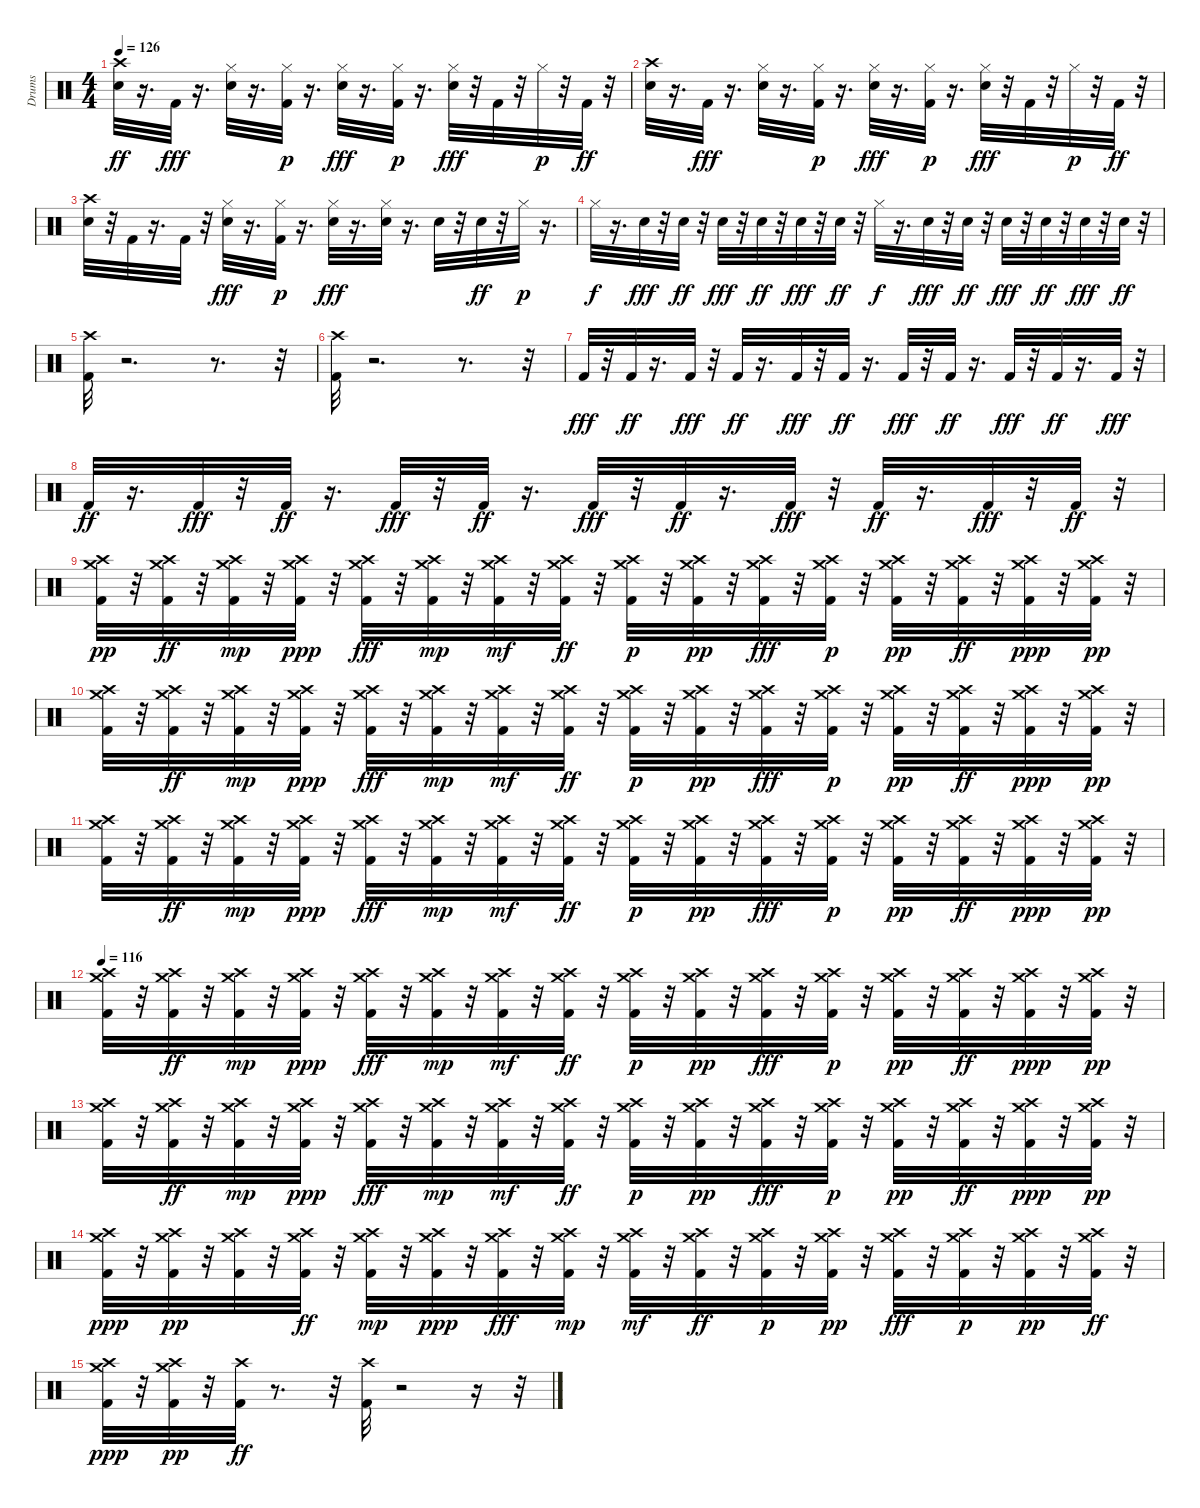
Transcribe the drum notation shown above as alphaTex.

\track ("Drums                               " "Drums     ") {instrument percussion}
\staff {score}
\articulation defaults
\ts (4 4)
\tempo 126
\clef neutral
\ks c
("Snare (hit) 2" "Crash high (hit)").32{dy ff} r.16{d} "Kick (hit) 2".32{dy fff} r.16{d} ("Snare (hit) 2" "Hi-Hat (closed)").32 r.16{d} ("Kick (hit) 2" "Hi-Hat (closed)").32{dy p} r.16{d} ("Snare (hit) 2" "Hi-Hat (closed)").32{dy fff} r.16{d} ("Kick (hit) 2" "Hi-Hat (closed)").32{dy p} r.16{d} ("Snare (hit) 2" "Hi-Hat (closed)").32{dy fff} r.32 "Kick (hit) 2".32 r.32 "Hi-Hat (closed)".32{dy p} r.32 "Kick (hit) 2".32{dy ff} r.32 |
("Snare (hit) 2" "Crash high (hit)").32 r.16{d} "Kick (hit) 2".32{dy fff} r.16{d} ("Snare (hit) 2" "Hi-Hat (closed)").32 r.16{d} ("Kick (hit) 2" "Hi-Hat (closed)").32{dy p} r.16{d} ("Snare (hit) 2" "Hi-Hat (closed)").32{dy fff} r.16{d} ("Kick (hit) 2" "Hi-Hat (closed)").32{dy p} r.16{d} ("Snare (hit) 2" "Hi-Hat (closed)").32{dy fff} r.32 "Kick (hit) 2".32 r.32 "Hi-Hat (closed)".32{dy p} r.32 "Kick (hit) 2".32{dy ff} r.32 |
("Snare (hit) 2" "Crash high (hit)").32 r.32 "Kick (hit) 2".32 r.16{d} "Kick (hit) 2".32 r.32 ("Snare (hit) 2" "Hi-Hat (closed)").32{dy fff} r.16{d} ("Kick (hit) 2" "Hi-Hat (closed)").32{dy p} r.16{d} ("Snare (hit) 2" "Hi-Hat (closed)").32{dy fff} r.16{d} ("Hi-Hat (closed)" "Snare (hit) 2").32 r.16{d} "Snare (hit) 2".32 r.32 "Snare (hit) 2".32{dy ff} r.32 "Hi-Hat (closed)".32{dy p} r.16{d} |
"Hi-Hat (closed)".32{dy f} r.16{d} "Snare (hit) 2".32{dy fff} r.32 "Snare (hit) 2".32{dy ff} r.32 "Snare (hit) 2".32{dy fff} r.32 "Snare (hit) 2".32{dy ff} r.32 "Snare (hit) 2".32{dy fff} r.32 "Snare (hit) 2".32{dy ff} r.32 "Hi-Hat (closed)".32{dy f} r.16{d} "Snare (hit) 2".32{dy fff} r.32 "Snare (hit) 2".32{dy ff} r.32 "Snare (hit) 2".32{dy fff} r.32 "Snare (hit) 2".32{dy ff} r.32 "Snare (hit) 2".32{dy fff} r.32 "Snare (hit) 2".32{dy ff} r.32 |
("Kick (hit) 2" "Crash high (hit)").32 r.2{d} r.8{d} r.32 |
("Kick (hit) 2" "Crash high (hit)").32 r.2{d} r.8{d} r.32 |
"Kick (hit) 2".32{dy fff} r.32 "Kick (hit) 2".32{dy ff} r.16{d} "Kick (hit) 2".32{dy fff} r.32 "Kick (hit) 2".32{dy ff} r.16{d} "Kick (hit) 2".32{dy fff} r.32 "Kick (hit) 2".32{dy ff} r.16{d} "Kick (hit) 2".32{dy fff} r.32 "Kick (hit) 2".32{dy ff} r.16{d} "Kick (hit) 2".32{dy fff} r.32 "Kick (hit) 2".32{dy ff} r.16{d} "Kick (hit) 2".32{dy fff} r.32 |
"Kick (hit) 2".32{dy ff} r.16{d} "Kick (hit) 2".32{dy fff} r.32 "Kick (hit) 2".32{dy ff} r.16{d} "Kick (hit) 2".32{dy fff} r.32 "Kick (hit) 2".32{dy ff} r.16{d} "Kick (hit) 2".32{dy fff} r.32 "Kick (hit) 2".32{dy ff} r.16{d} "Kick (hit) 2".32{dy fff} r.32 "Kick (hit) 2".32{dy ff} r.16{d} "Kick (hit) 2".32{dy fff} r.32 "Kick (hit) 2".32{dy ff} r.32 |
("Kick (hit) 2" "Crash high (hit)" "Crash medium (hit)").32{dy pp} r.32 ("Crash high (hit)" "Crash medium (hit)" "Kick (hit) 2").32{dy ff} r.32 ("Kick (hit) 2" "Crash high (hit)" "Crash medium (hit)").32{dy mp} r.32 ("Kick (hit) 2" "Crash high (hit)" "Crash medium (hit)").32{dy ppp} r.32 ("Crash high (hit)" "Crash medium (hit)" "Kick (hit) 2").32{dy fff} r.32 ("Kick (hit) 2" "Crash high (hit)" "Crash medium (hit)").32{dy mp} r.32 ("Kick (hit) 2" "Crash high (hit)" "Crash medium (hit)").32{dy mf} r.32 ("Crash high (hit)" "Crash medium (hit)" "Kick (hit) 2").32{dy ff} r.32 ("Kick (hit) 2" "Crash high (hit)" "Crash medium (hit)").32{dy p} r.32 ("Kick (hit) 2" "Crash high (hit)" "Crash medium (hit)").32{dy pp} r.32 ("Crash high (hit)" "Crash medium (hit)" "Kick (hit) 2").32{dy fff} r.32 ("Kick (hit) 2" "Crash high (hit)" "Crash medium (hit)").32{dy p} r.32 ("Kick (hit) 2" "Crash high (hit)" "Crash medium (hit)").32{dy pp} r.32 ("Crash high (hit)" "Crash medium (hit)" "Kick (hit) 2").32{dy ff} r.32 ("Kick (hit) 2" "Crash high (hit)" "Crash medium (hit)").32{dy ppp} r.32 ("Kick (hit) 2" "Crash high (hit)" "Crash medium (hit)").32{dy pp} r.32 |
("Kick (hit) 2" "Crash high (hit)" "Crash medium (hit)").32 r.32 ("Crash high (hit)" "Crash medium (hit)" "Kick (hit) 2").32{dy ff} r.32 ("Kick (hit) 2" "Crash high (hit)" "Crash medium (hit)").32{dy mp} r.32 ("Kick (hit) 2" "Crash high (hit)" "Crash medium (hit)").32{dy ppp} r.32 ("Crash high (hit)" "Crash medium (hit)" "Kick (hit) 2").32{dy fff} r.32 ("Kick (hit) 2" "Crash high (hit)" "Crash medium (hit)").32{dy mp} r.32 ("Kick (hit) 2" "Crash high (hit)" "Crash medium (hit)").32{dy mf} r.32 ("Crash high (hit)" "Crash medium (hit)" "Kick (hit) 2").32{dy ff} r.32 ("Kick (hit) 2" "Crash high (hit)" "Crash medium (hit)").32{dy p} r.32 ("Kick (hit) 2" "Crash high (hit)" "Crash medium (hit)").32{dy pp} r.32 ("Crash high (hit)" "Crash medium (hit)" "Kick (hit) 2").32{dy fff} r.32 ("Kick (hit) 2" "Crash high (hit)" "Crash medium (hit)").32{dy p} r.32 ("Kick (hit) 2" "Crash high (hit)" "Crash medium (hit)").32{dy pp} r.32 ("Crash high (hit)" "Crash medium (hit)" "Kick (hit) 2").32{dy ff} r.32 ("Kick (hit) 2" "Crash high (hit)" "Crash medium (hit)").32{dy ppp} r.32 ("Kick (hit) 2" "Crash high (hit)" "Crash medium (hit)").32{dy pp} r.32 |
("Kick (hit) 2" "Crash high (hit)" "Crash medium (hit)").32 r.32 ("Crash high (hit)" "Crash medium (hit)" "Kick (hit) 2").32{dy ff} r.32 ("Kick (hit) 2" "Crash high (hit)" "Crash medium (hit)").32{dy mp} r.32 ("Kick (hit) 2" "Crash high (hit)" "Crash medium (hit)").32{dy ppp} r.32 ("Crash high (hit)" "Crash medium (hit)" "Kick (hit) 2").32{dy fff} r.32 ("Kick (hit) 2" "Crash high (hit)" "Crash medium (hit)").32{dy mp} r.32 ("Kick (hit) 2" "Crash high (hit)" "Crash medium (hit)").32{dy mf} r.32 ("Crash high (hit)" "Crash medium (hit)" "Kick (hit) 2").32{dy ff} r.32 ("Kick (hit) 2" "Crash high (hit)" "Crash medium (hit)").32{dy p} r.32 ("Kick (hit) 2" "Crash high (hit)" "Crash medium (hit)").32{dy pp} r.32 ("Crash high (hit)" "Crash medium (hit)" "Kick (hit) 2").32{dy fff} r.32 ("Kick (hit) 2" "Crash high (hit)" "Crash medium (hit)").32{dy p} r.32 ("Kick (hit) 2" "Crash high (hit)" "Crash medium (hit)").32{dy pp} r.32 ("Crash high (hit)" "Crash medium (hit)" "Kick (hit) 2").32{dy ff} r.32 ("Kick (hit) 2" "Crash high (hit)" "Crash medium (hit)").32{dy ppp} r.32 ("Kick (hit) 2" "Crash high (hit)" "Crash medium (hit)").32{dy pp} r.32 |
\tempo 116
("Kick (hit) 2" "Crash high (hit)" "Crash medium (hit)").32 r.32 ("Crash high (hit)" "Crash medium (hit)" "Kick (hit) 2").32{dy ff} r.32 ("Kick (hit) 2" "Crash high (hit)" "Crash medium (hit)").32{dy mp} r.32 ("Kick (hit) 2" "Crash high (hit)" "Crash medium (hit)").32{dy ppp} r.32 ("Crash high (hit)" "Crash medium (hit)" "Kick (hit) 2").32{dy fff} r.32 ("Kick (hit) 2" "Crash high (hit)" "Crash medium (hit)").32{dy mp} r.32 ("Kick (hit) 2" "Crash high (hit)" "Crash medium (hit)").32{dy mf} r.32 ("Crash high (hit)" "Crash medium (hit)" "Kick (hit) 2").32{dy ff} r.32 ("Kick (hit) 2" "Crash high (hit)" "Crash medium (hit)").32{dy p} r.32 ("Kick (hit) 2" "Crash high (hit)" "Crash medium (hit)").32{dy pp} r.32 ("Crash high (hit)" "Crash medium (hit)" "Kick (hit) 2").32{dy fff} r.32 ("Kick (hit) 2" "Crash high (hit)" "Crash medium (hit)").32{dy p} r.32 ("Kick (hit) 2" "Crash high (hit)" "Crash medium (hit)").32{dy pp} r.32 ("Crash high (hit)" "Crash medium (hit)" "Kick (hit) 2").32{dy ff} r.32 ("Kick (hit) 2" "Crash high (hit)" "Crash medium (hit)").32{dy ppp} r.32 ("Kick (hit) 2" "Crash high (hit)" "Crash medium (hit)").32{dy pp} r.32 |
("Kick (hit) 2" "Crash high (hit)" "Crash medium (hit)").32 r.32 ("Crash high (hit)" "Crash medium (hit)" "Kick (hit) 2").32{dy ff} r.32 ("Kick (hit) 2" "Crash high (hit)" "Crash medium (hit)").32{dy mp} r.32 ("Kick (hit) 2" "Crash high (hit)" "Crash medium (hit)").32{dy ppp} r.32 ("Crash high (hit)" "Crash medium (hit)" "Kick (hit) 2").32{dy fff} r.32 ("Kick (hit) 2" "Crash high (hit)" "Crash medium (hit)").32{dy mp} r.32 ("Kick (hit) 2" "Crash high (hit)" "Crash medium (hit)").32{dy mf} r.32 ("Crash high (hit)" "Crash medium (hit)" "Kick (hit) 2").32{dy ff} r.32 ("Kick (hit) 2" "Crash high (hit)" "Crash medium (hit)").32{dy p} r.32 ("Kick (hit) 2" "Crash high (hit)" "Crash medium (hit)").32{dy pp} r.32 ("Crash high (hit)" "Crash medium (hit)" "Kick (hit) 2").32{dy fff} r.32 ("Kick (hit) 2" "Crash high (hit)" "Crash medium (hit)").32{dy p} r.32 ("Kick (hit) 2" "Crash high (hit)" "Crash medium (hit)").32{dy pp} r.32 ("Crash high (hit)" "Crash medium (hit)" "Kick (hit) 2").32{dy ff} r.32 ("Kick (hit) 2" "Crash high (hit)" "Crash medium (hit)").32{dy ppp} r.32 ("Kick (hit) 2" "Crash high (hit)" "Crash medium (hit)").32{dy pp} r.32 |
("Kick (hit) 2" "Crash high (hit)" "Crash medium (hit)").32{dy ppp} r.32 ("Kick (hit) 2" "Crash high (hit)" "Crash medium (hit)").32{dy pp} r.32 ("Kick (hit) 2" "Crash high (hit)" "Crash medium (hit)").32 r.32 ("Crash high (hit)" "Crash medium (hit)" "Kick (hit) 2").32{dy ff} r.32 ("Kick (hit) 2" "Crash high (hit)" "Crash medium (hit)").32{dy mp} r.32 ("Kick (hit) 2" "Crash high (hit)" "Crash medium (hit)").32{dy ppp} r.32 ("Crash high (hit)" "Crash medium (hit)" "Kick (hit) 2").32{dy fff} r.32 ("Kick (hit) 2" "Crash high (hit)" "Crash medium (hit)").32{dy mp} r.32 ("Kick (hit) 2" "Crash high (hit)" "Crash medium (hit)").32{dy mf} r.32 ("Crash high (hit)" "Crash medium (hit)" "Kick (hit) 2").32{dy ff} r.32 ("Kick (hit) 2" "Crash high (hit)" "Crash medium (hit)").32{dy p} r.32 ("Kick (hit) 2" "Crash high (hit)" "Crash medium (hit)").32{dy pp} r.32 ("Crash high (hit)" "Crash medium (hit)" "Kick (hit) 2").32{dy fff} r.32 ("Kick (hit) 2" "Crash high (hit)" "Crash medium (hit)").32{dy p} r.32 ("Kick (hit) 2" "Crash high (hit)" "Crash medium (hit)").32{dy pp} r.32 ("Crash high (hit)" "Crash medium (hit)" "Kick (hit) 2").32{dy ff} r.32 |
("Kick (hit) 2" "Crash high (hit)" "Crash medium (hit)").32{dy ppp} r.32 ("Kick (hit) 2" "Crash high (hit)" "Crash medium (hit)").32{dy pp} r.32 ("Kick (hit) 2" "Crash high (hit)").32{dy ff} r.8{d} r.32 ("Kick (hit) 2" "Crash high (hit)").32 r.2 r.16 r.32
